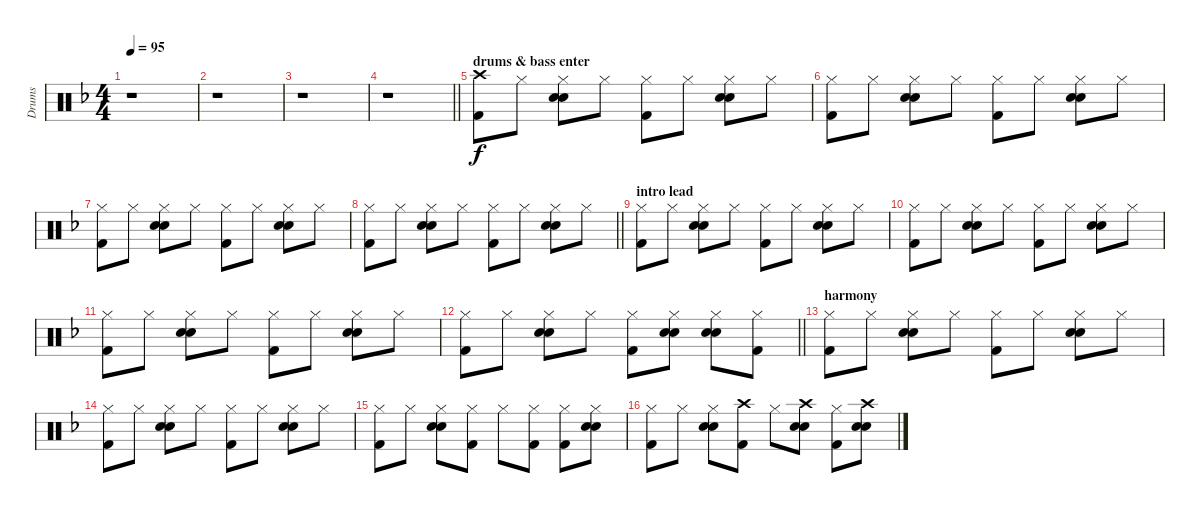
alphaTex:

\track ("Drums" "Drums") {instrument percussion}
\staff {score}
\articulation defaults
\ts (4 4)
\tempo 95
\clef neutral
\ks dminor
r.1{dy f} |
r.1 |
r.1 |
\barLineRight lightlight
r.1 |
\section ("" "drums & bass enter")
("Crash high (hit)" "Kick (hit) 2").8 "Hi-Hat (closed)".8 ("Hi-Hat (closed)" "Snare (hit) 2" "Electric Snare (hit)").8 "Hi-Hat (closed)".8 ("Hi-Hat (closed)" "Kick (hit) 2").8 "Hi-Hat (closed)".8 ("Hi-Hat (closed)" "Snare (hit) 2" "Electric Snare (hit)").8 "Hi-Hat (closed)".8 |
("Hi-Hat (closed)" "Kick (hit) 2").8 "Hi-Hat (closed)".8 ("Hi-Hat (closed)" "Snare (hit) 2" "Electric Snare (hit)").8 "Hi-Hat (closed)".8 ("Hi-Hat (closed)" "Kick (hit) 2").8 "Hi-Hat (closed)".8 ("Hi-Hat (closed)" "Snare (hit) 2" "Electric Snare (hit)").8 "Hi-Hat (closed)".8 |
("Hi-Hat (closed)" "Kick (hit) 2").8 "Hi-Hat (closed)".8 ("Hi-Hat (closed)" "Snare (hit) 2" "Electric Snare (hit)").8 "Hi-Hat (closed)".8 ("Hi-Hat (closed)" "Kick (hit) 2").8 "Hi-Hat (closed)".8 ("Hi-Hat (closed)" "Snare (hit) 2" "Electric Snare (hit)").8 "Hi-Hat (closed)".8 |
\barLineRight lightlight
("Hi-Hat (closed)" "Kick (hit) 2").8 "Hi-Hat (closed)".8 ("Hi-Hat (closed)" "Snare (hit) 2" "Electric Snare (hit)").8 "Hi-Hat (closed)".8 ("Hi-Hat (closed)" "Kick (hit) 2").8 "Hi-Hat (closed)".8 ("Hi-Hat (closed)" "Snare (hit) 2" "Electric Snare (hit)").8 "Hi-Hat (closed)".8 |
\section ("" "intro lead")
("Hi-Hat (closed)" "Kick (hit) 2").8 "Hi-Hat (closed)".8 ("Hi-Hat (closed)" "Snare (hit) 2" "Electric Snare (hit)").8 "Hi-Hat (closed)".8 ("Hi-Hat (closed)" "Kick (hit) 2").8 "Hi-Hat (closed)".8 ("Hi-Hat (closed)" "Snare (hit) 2" "Electric Snare (hit)").8 "Hi-Hat (closed)".8 |
("Hi-Hat (closed)" "Kick (hit) 2").8 "Hi-Hat (closed)".8 ("Hi-Hat (closed)" "Snare (hit) 2" "Electric Snare (hit)").8 "Hi-Hat (closed)".8 ("Hi-Hat (closed)" "Kick (hit) 2").8 "Hi-Hat (closed)".8 ("Hi-Hat (closed)" "Snare (hit) 2" "Electric Snare (hit)").8 "Hi-Hat (closed)".8 |
("Hi-Hat (closed)" "Kick (hit) 2").8 "Hi-Hat (closed)".8 ("Hi-Hat (closed)" "Snare (hit) 2" "Electric Snare (hit)").8 "Hi-Hat (closed)".8 ("Hi-Hat (closed)" "Kick (hit) 2").8 "Hi-Hat (closed)".8 ("Hi-Hat (closed)" "Snare (hit) 2" "Electric Snare (hit)").8 "Hi-Hat (closed)".8 |
\barLineRight lightlight
("Hi-Hat (closed)" "Kick (hit) 2").8 "Hi-Hat (closed)".8 ("Hi-Hat (closed)" "Snare (hit) 2" "Electric Snare (hit)").8 "Hi-Hat (closed)".8 ("Hi-Hat (closed)" "Kick (hit) 2").8 ("Hi-Hat (closed)" "Snare (hit) 2" "Electric Snare (hit)").8 ("Hi-Hat (closed)" "Snare (hit) 2" "Electric Snare (hit)").8 ("Hi-Hat (closed)" "Kick (hit) 2").8 |
\section ("" "harmony")
("Hi-Hat (closed)" "Kick (hit) 2").8 "Hi-Hat (closed)".8 ("Hi-Hat (closed)" "Snare (hit) 2" "Electric Snare (hit)").8 "Hi-Hat (closed)".8 ("Hi-Hat (closed)" "Kick (hit) 2").8 "Hi-Hat (closed)".8 ("Hi-Hat (closed)" "Snare (hit) 2" "Electric Snare (hit)").8 "Hi-Hat (closed)".8 |
("Hi-Hat (closed)" "Kick (hit) 2").8 "Hi-Hat (closed)".8 ("Hi-Hat (closed)" "Snare (hit) 2" "Electric Snare (hit)").8 "Hi-Hat (closed)".8 ("Hi-Hat (closed)" "Kick (hit) 2").8 "Hi-Hat (closed)".8 ("Hi-Hat (closed)" "Snare (hit) 2" "Electric Snare (hit)").8 "Hi-Hat (closed)".8 |
("Hi-Hat (closed)" "Kick (hit) 2").8 "Hi-Hat (closed)".8 ("Hi-Hat (closed)" "Snare (hit) 2" "Electric Snare (hit)").8 ("Hi-Hat (closed)" "Kick (hit) 2").8 "Hi-Hat (closed)".8 ("Hi-Hat (closed)" "Kick (hit) 2").8 ("Hi-Hat (closed)" "Kick (hit) 2").8 ("Hi-Hat (closed)" "Snare (hit) 2" "Electric Snare (hit)").8 |
("Hi-Hat (closed)" "Kick (hit) 2").8 "Hi-Hat (closed)".8 ("Hi-Hat (closed)" "Snare (hit) 2" "Electric Snare (hit)").8 ("Crash high (hit)" "Kick (hit) 2").8 "Hi-Hat (closed)".8 ("Crash high (hit)" "Snare (hit) 2" "Electric Snare (hit)").8 ("Hi-Hat (closed)" "Kick (hit) 2").8 ("Crash high (hit)" "Snare (hit) 2" "Electric Snare (hit)").8
